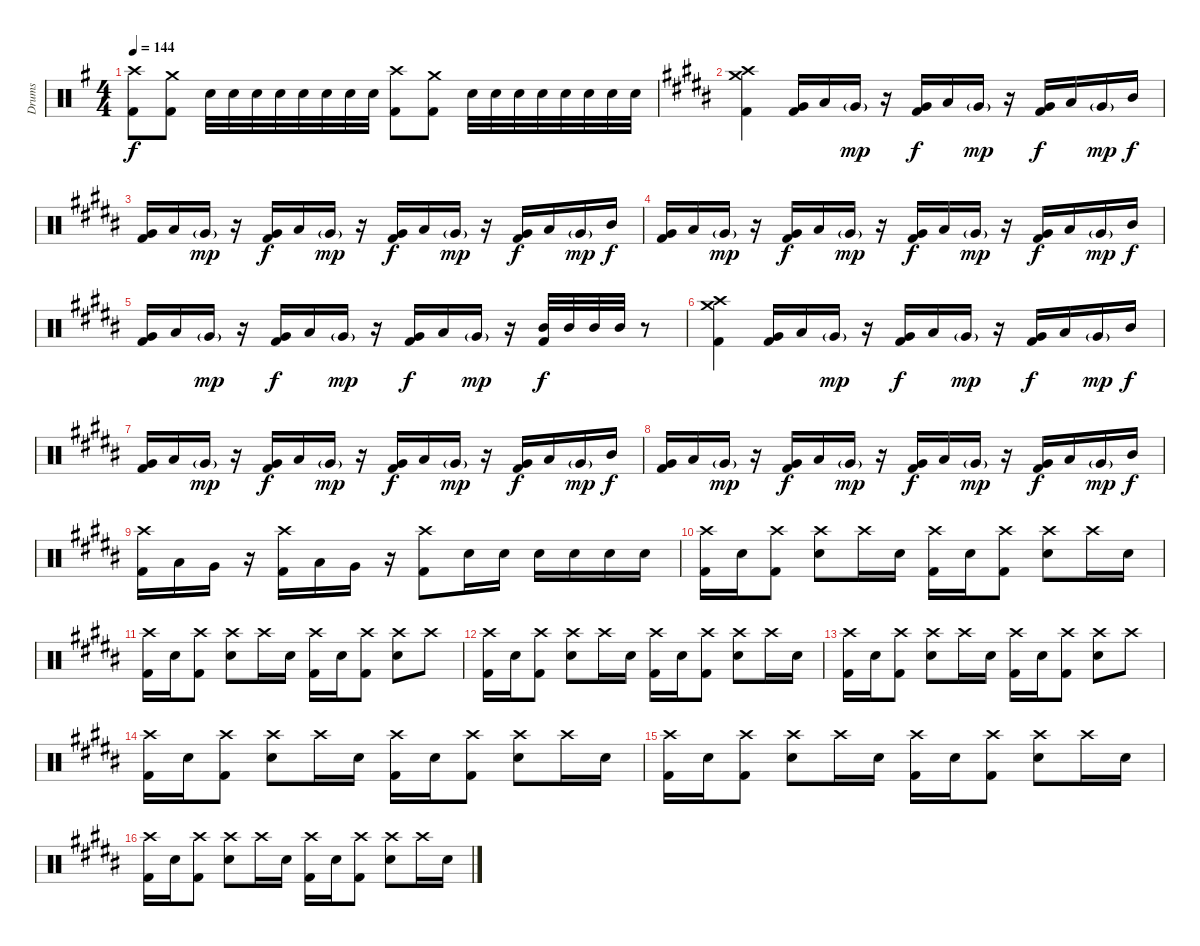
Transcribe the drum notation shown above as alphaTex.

\track ("Drums" "Drums") {instrument percussion}
\staff {score}
\articulation defaults
\ts (4 4)
\tempo 144
\clef neutral
\ks eminor
("Crash high (hit)" "Kick (hit) 2").8{dy f} ("Crash medium (hit)" "Kick (hit) 2").8 "Snare (hit) 2".32 "Snare (hit) 2".32 "Snare (hit) 2".32 "Snare (hit) 2".32 "Snare (hit) 2".32 "Snare (hit) 2".32 "Snare (hit) 2".32 "Snare (hit) 2".32 ("Crash high (hit)" "Kick (hit) 2").8 ("Crash medium (hit)" "Kick (hit) 2").8 "Snare (hit) 2".32 "Snare (hit) 2".32 "Snare (hit) 2".32 "Snare (hit) 2".32 "Snare (hit) 2".32 "Snare (hit) 2".32 "Snare (hit) 2".32 "Snare (hit) 2".32 |
\ks g#minor
("Crash high (hit)" "Crash medium (hit)" "Kick (hit) 2").4 ("Very Low Tom (hit)" "Kick (hit) 2").16 "Low Tom (hit)".16 "Very Low Tom (hit)"{g}.16{dy mp} r.16 ("Very Low Tom (hit)" "Kick (hit) 2").16{dy f} "Low Tom (hit)".16 "Very Low Tom (hit)"{g}.16{dy mp} r.16 ("Very Low Tom (hit)" "Kick (hit) 2").16{dy f} "Low Tom (hit)".16 "Very Low Tom (hit)"{g}.16{dy mp} "Mid Tom (hit)".16{dy f} |
("Very Low Tom (hit)" "Kick (hit) 2").16 "Low Tom (hit)".16 "Very Low Tom (hit)"{g}.16{dy mp} r.16 ("Very Low Tom (hit)" "Kick (hit) 2").16{dy f} "Low Tom (hit)".16 "Very Low Tom (hit)"{g}.16{dy mp} r.16 ("Very Low Tom (hit)" "Kick (hit) 2").16{dy f} "Low Tom (hit)".16 "Very Low Tom (hit)"{g}.16{dy mp} r.16 ("Very Low Tom (hit)" "Kick (hit) 2").16{dy f} "Low Tom (hit)".16 "Very Low Tom (hit)"{g}.16{dy mp} "Mid Tom (hit)".16{dy f} |
("Very Low Tom (hit)" "Kick (hit) 2").16 "Low Tom (hit)".16 "Very Low Tom (hit)"{g}.16{dy mp} r.16 ("Very Low Tom (hit)" "Kick (hit) 2").16{dy f} "Low Tom (hit)".16 "Very Low Tom (hit)"{g}.16{dy mp} r.16 ("Very Low Tom (hit)" "Kick (hit) 2").16{dy f} "Low Tom (hit)".16 "Very Low Tom (hit)"{g}.16{dy mp} r.16 ("Very Low Tom (hit)" "Kick (hit) 2").16{dy f} "Low Tom (hit)".16 "Very Low Tom (hit)"{g}.16{dy mp} "Mid Tom (hit)".16{dy f} |
("Very Low Tom (hit)" "Kick (hit) 2").16 "Low Tom (hit)".16 "Very Low Tom (hit)"{g}.16{dy mp} r.16 ("Very Low Tom (hit)" "Kick (hit) 2").16{dy f} "Low Tom (hit)".16 "Very Low Tom (hit)"{g}.16{dy mp} r.16 ("Very Low Tom (hit)" "Kick (hit) 2").16{dy f} "Low Tom (hit)".16 "Very Low Tom (hit)"{g}.16{dy mp} r.16 ("Mid Tom (hit)" "Kick (hit) 2").32{dy f} "Mid Tom (hit)".32 "Mid Tom (hit)".32 "Mid Tom (hit)".32 r.8 |
("Crash high (hit)" "Crash medium (hit)" "Kick (hit) 2").4 ("Very Low Tom (hit)" "Kick (hit) 2").16 "Low Tom (hit)".16 "Very Low Tom (hit)"{g}.16{dy mp} r.16 ("Very Low Tom (hit)" "Kick (hit) 2").16{dy f} "Low Tom (hit)".16 "Very Low Tom (hit)"{g}.16{dy mp} r.16 ("Very Low Tom (hit)" "Kick (hit) 2").16{dy f} "Low Tom (hit)".16 "Very Low Tom (hit)"{g}.16{dy mp} "Mid Tom (hit)".16{dy f} |
("Very Low Tom (hit)" "Kick (hit) 2").16 "Low Tom (hit)".16 "Very Low Tom (hit)"{g}.16{dy mp} r.16 ("Very Low Tom (hit)" "Kick (hit) 2").16{dy f} "Low Tom (hit)".16 "Very Low Tom (hit)"{g}.16{dy mp} r.16 ("Very Low Tom (hit)" "Kick (hit) 2").16{dy f} "Low Tom (hit)".16 "Very Low Tom (hit)"{g}.16{dy mp} r.16 ("Very Low Tom (hit)" "Kick (hit) 2").16{dy f} "Low Tom (hit)".16 "Very Low Tom (hit)"{g}.16{dy mp} "Mid Tom (hit)".16{dy f} |
("Very Low Tom (hit)" "Kick (hit) 2").16 "Low Tom (hit)".16 "Very Low Tom (hit)"{g}.16{dy mp} r.16 ("Very Low Tom (hit)" "Kick (hit) 2").16{dy f} "Low Tom (hit)".16 "Very Low Tom (hit)"{g}.16{dy mp} r.16 ("Very Low Tom (hit)" "Kick (hit) 2").16{dy f} "Low Tom (hit)".16 "Very Low Tom (hit)"{g}.16{dy mp} r.16 ("Very Low Tom (hit)" "Kick (hit) 2").16{dy f} "Low Tom (hit)".16 "Very Low Tom (hit)"{g}.16{dy mp} "Mid Tom (hit)".16{dy f} |
("Crash high (hit)" "Kick (hit) 2").16 "Low Tom (hit)".16 "Very Low Tom (hit)".16 r.16 ("Crash high (hit)" "Kick (hit) 2").16 "Low Tom (hit)".16 "Very Low Tom (hit)".16 r.16 ("Crash high (hit)" "Kick (hit) 2").8 "Snare (hit) 2".16 "Snare (hit) 2".16 "Snare (hit) 2".16 "Snare (hit) 2".16 "Snare (hit) 2".16 "Snare (hit) 2".16 |
("Crash high (hit)" "Kick (hit) 2").16 "Snare (hit) 2".16 ("Crash high (hit)" "Kick (hit) 2").8 ("Crash high (hit)" "Snare (hit) 2").8 "Crash high (hit)".16 "Snare (hit) 2".16 ("Crash high (hit)" "Kick (hit) 2").16 "Snare (hit) 2".16 ("Crash high (hit)" "Kick (hit) 2").8 ("Crash high (hit)" "Snare (hit) 2").8 "Crash high (hit)".16 "Snare (hit) 2".16 |
("Crash high (hit)" "Kick (hit) 2").16 "Snare (hit) 2".16 ("Crash high (hit)" "Kick (hit) 2").8 ("Crash high (hit)" "Snare (hit) 2").8 "Crash high (hit)".16 "Snare (hit) 2".16 ("Crash high (hit)" "Kick (hit) 2").16 "Snare (hit) 2".16 ("Crash high (hit)" "Kick (hit) 2").8 ("Crash high (hit)" "Snare (hit) 2").8 "Crash high (hit)".8 |
("Crash high (hit)" "Kick (hit) 2").16 "Snare (hit) 2".16 ("Crash high (hit)" "Kick (hit) 2").8 ("Crash high (hit)" "Snare (hit) 2").8 "Crash high (hit)".16 "Snare (hit) 2".16 ("Crash high (hit)" "Kick (hit) 2").16 "Snare (hit) 2".16 ("Crash high (hit)" "Kick (hit) 2").8 ("Crash high (hit)" "Snare (hit) 2").8 "Crash high (hit)".16 "Snare (hit) 2".16 |
("Crash high (hit)" "Kick (hit) 2").16 "Snare (hit) 2".16 ("Crash high (hit)" "Kick (hit) 2").8 ("Crash high (hit)" "Snare (hit) 2").8 "Crash high (hit)".16 "Snare (hit) 2".16 ("Crash high (hit)" "Kick (hit) 2").16 "Snare (hit) 2".16 ("Crash high (hit)" "Kick (hit) 2").8 ("Crash high (hit)" "Snare (hit) 2").8 "Crash high (hit)".8 |
("Crash high (hit)" "Kick (hit) 2").16 "Snare (hit) 2".16 ("Crash high (hit)" "Kick (hit) 2").8 ("Crash high (hit)" "Snare (hit) 2").8 "Crash high (hit)".16 "Snare (hit) 2".16 ("Crash high (hit)" "Kick (hit) 2").16 "Snare (hit) 2".16 ("Crash high (hit)" "Kick (hit) 2").8 ("Crash high (hit)" "Snare (hit) 2").8 "Crash high (hit)".16 "Snare (hit) 2".16 |
("Crash high (hit)" "Kick (hit) 2").16 "Snare (hit) 2".16 ("Crash high (hit)" "Kick (hit) 2").8 ("Crash high (hit)" "Snare (hit) 2").8 "Crash high (hit)".16 "Snare (hit) 2".16 ("Crash high (hit)" "Kick (hit) 2").16 "Snare (hit) 2".16 ("Crash high (hit)" "Kick (hit) 2").8 ("Crash high (hit)" "Snare (hit) 2").8 "Crash high (hit)".16 "Snare (hit) 2".16 |
("Crash high (hit)" "Kick (hit) 2").16 "Snare (hit) 2".16 ("Crash high (hit)" "Kick (hit) 2").8 ("Crash high (hit)" "Snare (hit) 2").8 "Crash high (hit)".16 "Snare (hit) 2".16 ("Crash high (hit)" "Kick (hit) 2").16 "Snare (hit) 2".16 ("Crash high (hit)" "Kick (hit) 2").8 ("Crash high (hit)" "Snare (hit) 2").8 "Crash high (hit)".16 "Snare (hit) 2".16
